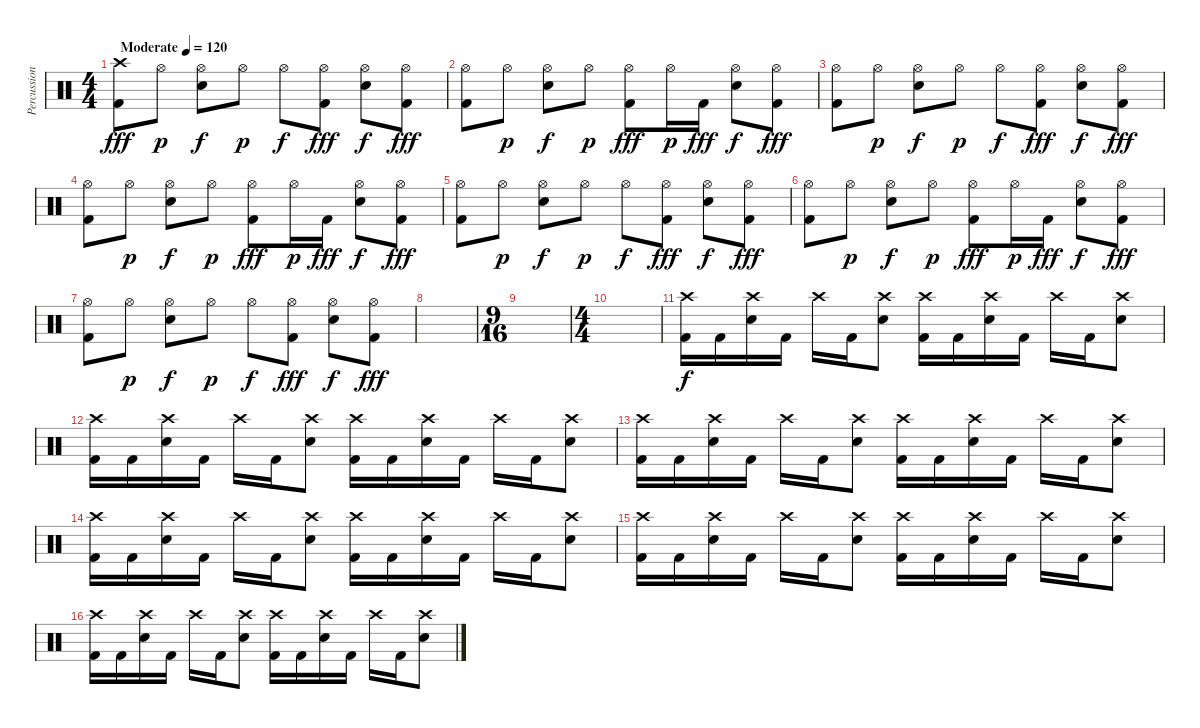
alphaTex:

\track ("Percussion" "Percussion") {instrument percussion}
\staff {score}
\articulation defaults
\ts (4 4)
\tempo (120 "Moderate")
\clef neutral
\ks c
("Kick (hit) 2" "Crash high (hit)").8{dy fff} "Hi-Hat (open)".8{dy p} ("Hi-Hat (open)" "Snare (hit) 2").8{dy f} "Hi-Hat (open)".8{dy p} "Hi-Hat (open)".8{dy f} ("Hi-Hat (open)" "Kick (hit) 2").8{dy fff} ("Hi-Hat (open)" "Snare (hit) 2").8{dy f} ("Hi-Hat (open)" "Kick (hit) 2").8{dy fff} |
("Hi-Hat (open)" "Kick (hit) 2").8 "Hi-Hat (open)".8{dy p} ("Hi-Hat (open)" "Snare (hit) 2").8{dy f} "Hi-Hat (open)".8{dy p} ("Hi-Hat (open)" "Kick (hit) 2").8{dy fff} "Hi-Hat (open)".16{dy p} "Kick (hit) 2".16{dy fff} ("Hi-Hat (open)" "Snare (hit) 2").8{dy f} ("Hi-Hat (open)" "Kick (hit) 2").8{dy fff} |
("Hi-Hat (open)" "Kick (hit) 2").8 "Hi-Hat (open)".8{dy p} ("Hi-Hat (open)" "Snare (hit) 2").8{dy f} "Hi-Hat (open)".8{dy p} "Hi-Hat (open)".8{dy f} ("Hi-Hat (open)" "Kick (hit) 2").8{dy fff} ("Hi-Hat (open)" "Snare (hit) 2").8{dy f} ("Hi-Hat (open)" "Kick (hit) 2").8{dy fff} |
("Hi-Hat (open)" "Kick (hit) 2").8 "Hi-Hat (open)".8{dy p} ("Hi-Hat (open)" "Snare (hit) 2").8{dy f} "Hi-Hat (open)".8{dy p} ("Hi-Hat (open)" "Kick (hit) 2").8{dy fff} "Hi-Hat (open)".16{dy p} "Kick (hit) 2".16{dy fff} ("Hi-Hat (open)" "Snare (hit) 2").8{dy f} ("Hi-Hat (open)" "Kick (hit) 2").8{dy fff} |
("Hi-Hat (open)" "Kick (hit) 2").8 "Hi-Hat (open)".8{dy p} ("Hi-Hat (open)" "Snare (hit) 2").8{dy f} "Hi-Hat (open)".8{dy p} "Hi-Hat (open)".8{dy f} ("Hi-Hat (open)" "Kick (hit) 2").8{dy fff} ("Hi-Hat (open)" "Snare (hit) 2").8{dy f} ("Hi-Hat (open)" "Kick (hit) 2").8{dy fff} |
("Hi-Hat (open)" "Kick (hit) 2").8 "Hi-Hat (open)".8{dy p} ("Hi-Hat (open)" "Snare (hit) 2").8{dy f} "Hi-Hat (open)".8{dy p} ("Hi-Hat (open)" "Kick (hit) 2").8{dy fff} "Hi-Hat (open)".16{dy p} "Kick (hit) 2".16{dy fff} ("Hi-Hat (open)" "Snare (hit) 2").8{dy f} ("Hi-Hat (open)" "Kick (hit) 2").8{dy fff} |
("Hi-Hat (open)" "Kick (hit) 2").8 "Hi-Hat (open)".8{dy p} ("Hi-Hat (open)" "Snare (hit) 2").8{dy f} "Hi-Hat (open)".8{dy p} "Hi-Hat (open)".8{dy f} ("Hi-Hat (open)" "Kick (hit) 2").8{dy fff} ("Hi-Hat (open)" "Snare (hit) 2").8{dy f} ("Hi-Hat (open)" "Kick (hit) 2").8{dy fff} |
|
\ts (9 16)
|
\ts (4 4)
|
("Kick (hit) 2" "Crash high (hit)").16{dy f} "Kick (hit) 2".16 ("Electric Snare (hit)" "Crash high (hit)").16 "Kick (hit) 2".16 "Crash high (hit)".16 "Kick (hit) 2".16 ("Electric Snare (hit)" "Crash high (hit)").8 ("Kick (hit) 2" "Crash high (hit)").16 "Kick (hit) 2".16 ("Electric Snare (hit)" "Crash high (hit)").16 "Kick (hit) 2".16 "Crash high (hit)".16 "Kick (hit) 2".16 ("Electric Snare (hit)" "Crash high (hit)").8 |
("Kick (hit) 2" "Crash high (hit)").16 "Kick (hit) 2".16 ("Electric Snare (hit)" "Crash high (hit)").16 "Kick (hit) 2".16 "Crash high (hit)".16 "Kick (hit) 2".16 ("Electric Snare (hit)" "Crash high (hit)").8 ("Kick (hit) 2" "Crash high (hit)").16 "Kick (hit) 2".16 ("Electric Snare (hit)" "Crash high (hit)").16 "Kick (hit) 2".16 "Crash high (hit)".16 "Kick (hit) 2".16 ("Electric Snare (hit)" "Crash high (hit)").8 |
("Kick (hit) 2" "Crash high (hit)").16 "Kick (hit) 2".16 ("Electric Snare (hit)" "Crash high (hit)").16 "Kick (hit) 2".16 "Crash high (hit)".16 "Kick (hit) 2".16 ("Electric Snare (hit)" "Crash high (hit)").8 ("Kick (hit) 2" "Crash high (hit)").16 "Kick (hit) 2".16 ("Electric Snare (hit)" "Crash high (hit)").16 "Kick (hit) 2".16 "Crash high (hit)".16 "Kick (hit) 2".16 ("Electric Snare (hit)" "Crash high (hit)").8 |
("Kick (hit) 2" "Crash high (hit)").16 "Kick (hit) 2".16 ("Electric Snare (hit)" "Crash high (hit)").16 "Kick (hit) 2".16 "Crash high (hit)".16 "Kick (hit) 2".16 ("Electric Snare (hit)" "Crash high (hit)").8 ("Kick (hit) 2" "Crash high (hit)").16 "Kick (hit) 2".16 ("Electric Snare (hit)" "Crash high (hit)").16 "Kick (hit) 2".16 "Crash high (hit)".16 "Kick (hit) 2".16 ("Electric Snare (hit)" "Crash high (hit)").8 |
("Kick (hit) 2" "Crash high (hit)").16 "Kick (hit) 2".16 ("Electric Snare (hit)" "Crash high (hit)").16 "Kick (hit) 2".16 "Crash high (hit)".16 "Kick (hit) 2".16 ("Electric Snare (hit)" "Crash high (hit)").8 ("Kick (hit) 2" "Crash high (hit)").16 "Kick (hit) 2".16 ("Electric Snare (hit)" "Crash high (hit)").16 "Kick (hit) 2".16 "Crash high (hit)".16 "Kick (hit) 2".16 ("Electric Snare (hit)" "Crash high (hit)").8 |
("Kick (hit) 2" "Crash high (hit)").16 "Kick (hit) 2".16 ("Electric Snare (hit)" "Crash high (hit)").16 "Kick (hit) 2".16 "Crash high (hit)".16 "Kick (hit) 2".16 ("Electric Snare (hit)" "Crash high (hit)").8 ("Kick (hit) 2" "Crash high (hit)").16 "Kick (hit) 2".16 ("Electric Snare (hit)" "Crash high (hit)").16 "Kick (hit) 2".16 "Crash high (hit)".16 "Kick (hit) 2".16 ("Electric Snare (hit)" "Crash high (hit)").8
